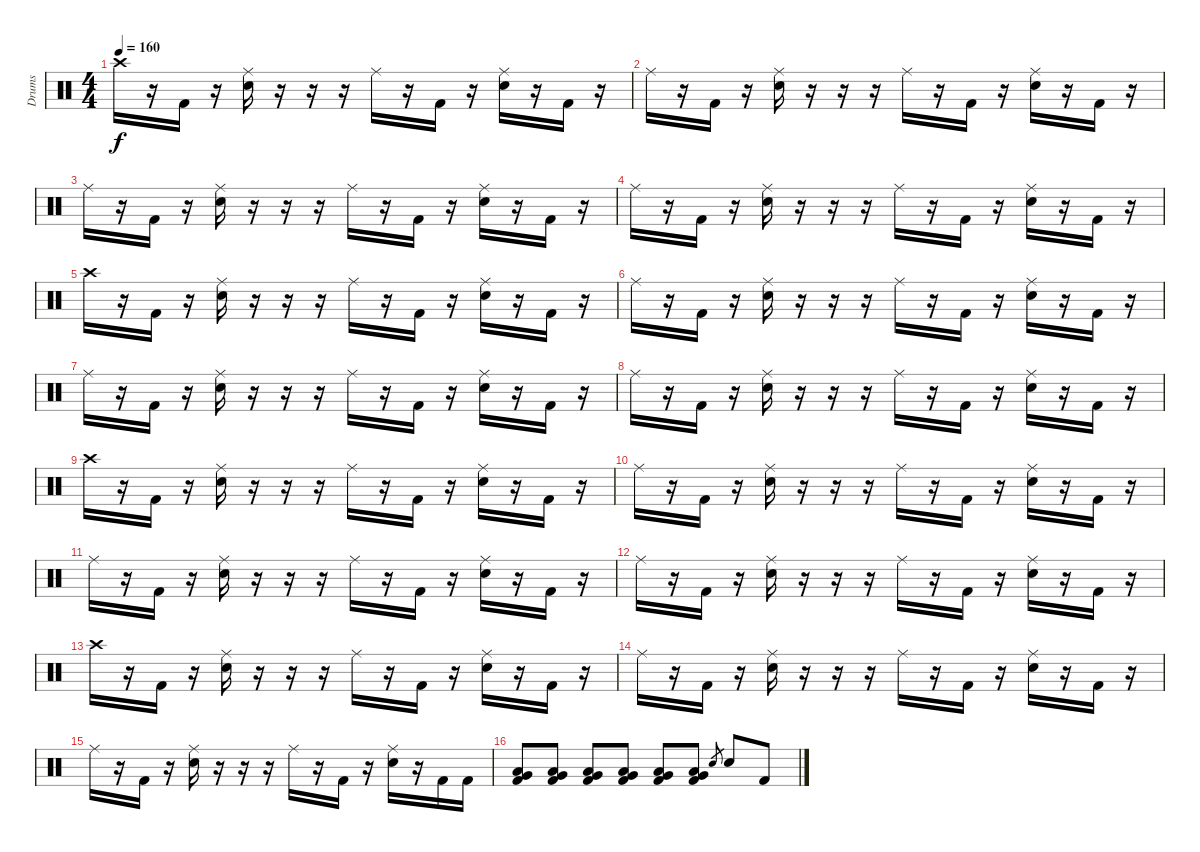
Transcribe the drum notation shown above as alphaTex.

\track ("Drums" "Drums") {instrument percussion}
\staff {score}
\articulation defaults
\ts (4 4)
\tempo 160
\clef neutral
\ks c "Crash high (hit)".16{dy f}
r.16 "Kick (hit) 2".16 r.16 ("Ride (middle)" "Electric Snare (hit)").16 r.16 r.16 r.16 "Ride (middle)".16 r.16 "Kick (hit) 2".16 r.16 ("Ride (middle)" "Electric Snare (hit)").16 r.16 "Kick (hit) 2".16 r.16 |
"Ride (middle)".16 r.16 "Kick (hit) 2".16 r.16 ("Ride (middle)" "Electric Snare (hit)").16 r.16 r.16 r.16 "Ride (middle)".16 r.16 "Kick (hit) 2".16 r.16 ("Ride (middle)" "Electric Snare (hit)").16 r.16 "Kick (hit) 2".16 r.16 |
"Ride (middle)".16 r.16 "Kick (hit) 2".16 r.16 ("Ride (middle)" "Electric Snare (hit)").16 r.16 r.16 r.16 "Ride (middle)".16 r.16 "Kick (hit) 2".16 r.16 ("Ride (middle)" "Electric Snare (hit)").16 r.16 "Kick (hit) 2".16 r.16 |
"Ride (middle)".16 r.16 "Kick (hit) 2".16 r.16 ("Ride (middle)" "Electric Snare (hit)").16 r.16 r.16 r.16 "Ride (middle)".16 r.16 "Kick (hit) 2".16 r.16 ("Ride (middle)" "Electric Snare (hit)").16 r.16 "Kick (hit) 2".16 r.16 |
"Crash high (hit)".16 r.16 "Kick (hit) 2".16 r.16 ("Ride (middle)" "Electric Snare (hit)").16 r.16 r.16 r.16 "Ride (middle)".16 r.16 "Kick (hit) 2".16 r.16 ("Ride (middle)" "Electric Snare (hit)").16 r.16 "Kick (hit) 2".16 r.16 |
"Ride (middle)".16 r.16 "Kick (hit) 2".16 r.16 ("Ride (middle)" "Electric Snare (hit)").16 r.16 r.16 r.16 "Ride (middle)".16 r.16 "Kick (hit) 2".16 r.16 ("Ride (middle)" "Electric Snare (hit)").16 r.16 "Kick (hit) 2".16 r.16 |
"Ride (middle)".16 r.16 "Kick (hit) 2".16 r.16 ("Ride (middle)" "Electric Snare (hit)").16 r.16 r.16 r.16 "Ride (middle)".16 r.16 "Kick (hit) 2".16 r.16 ("Ride (middle)" "Electric Snare (hit)").16 r.16 "Kick (hit) 2".16 r.16 |
"Ride (middle)".16 r.16 "Kick (hit) 2".16 r.16 ("Ride (middle)" "Electric Snare (hit)").16 r.16 r.16 r.16 "Ride (middle)".16 r.16 "Kick (hit) 2".16 r.16 ("Ride (middle)" "Electric Snare (hit)").16 r.16 "Kick (hit) 2".16 r.16 |
"Crash high (hit)".16 r.16 "Kick (hit) 2".16 r.16 ("Ride (middle)" "Electric Snare (hit)").16 r.16 r.16 r.16 "Ride (middle)".16 r.16 "Kick (hit) 2".16 r.16 ("Ride (middle)" "Electric Snare (hit)").16 r.16 "Kick (hit) 2".16 r.16 |
"Ride (middle)".16 r.16 "Kick (hit) 2".16 r.16 ("Ride (middle)" "Electric Snare (hit)").16 r.16 r.16 r.16 "Ride (middle)".16 r.16 "Kick (hit) 2".16 r.16 ("Ride (middle)" "Electric Snare (hit)").16 r.16 "Kick (hit) 2".16 r.16 |
"Ride (middle)".16 r.16 "Kick (hit) 2".16 r.16 ("Ride (middle)" "Electric Snare (hit)").16 r.16 r.16 r.16 "Ride (middle)".16 r.16 "Kick (hit) 2".16 r.16 ("Ride (middle)" "Electric Snare (hit)").16 r.16 "Kick (hit) 2".16 r.16 |
"Ride (middle)".16 r.16 "Kick (hit) 2".16 r.16 ("Ride (middle)" "Electric Snare (hit)").16 r.16 r.16 r.16 "Ride (middle)".16 r.16 "Kick (hit) 2".16 r.16 ("Ride (middle)" "Electric Snare (hit)").16 r.16 "Kick (hit) 2".16 r.16 |
"Crash high (hit)".16 r.16 "Kick (hit) 2".16 r.16 ("Ride (middle)" "Electric Snare (hit)").16 r.16 r.16 r.16 "Ride (middle)".16 r.16 "Kick (hit) 2".16 r.16 ("Ride (middle)" "Electric Snare (hit)").16 r.16 "Kick (hit) 2".16 r.16 |
"Ride (middle)".16 r.16 "Kick (hit) 2".16 r.16 ("Ride (middle)" "Electric Snare (hit)").16 r.16 r.16 r.16 "Ride (middle)".16 r.16 "Kick (hit) 2".16 r.16 ("Ride (middle)" "Electric Snare (hit)").16 r.16 "Kick (hit) 2".16 r.16 |
"Ride (middle)".16 r.16 "Kick (hit) 2".16 r.16 ("Ride (middle)" "Electric Snare (hit)").16 r.16 r.16 r.16 "Ride (middle)".16 r.16 "Kick (hit) 2".16 r.16 ("Ride (middle)" "Electric Snare (hit)").16 r.16 "Kick (hit) 2".16 "Kick (hit) 2".16 |
("Low Tom (hit)" "Very Low Tom (hit)" "Kick (hit) 2").8 ("Low Tom (hit)" "Very Low Tom (hit)" "Kick (hit) 2").8 ("Low Tom (hit)" "Very Low Tom (hit)" "Kick (hit) 2").8 ("Low Tom (hit)" "Very Low Tom (hit)" "Kick (hit) 2").8 ("Low Tom (hit)" "Very Low Tom (hit)" "Kick (hit) 2").8 ("Low Tom (hit)" "Very Low Tom (hit)" "Kick (hit) 2").8 "Electric Snare (hit)".8{gr} "Electric Snare (hit)".8 "Kick (hit) 2".8
